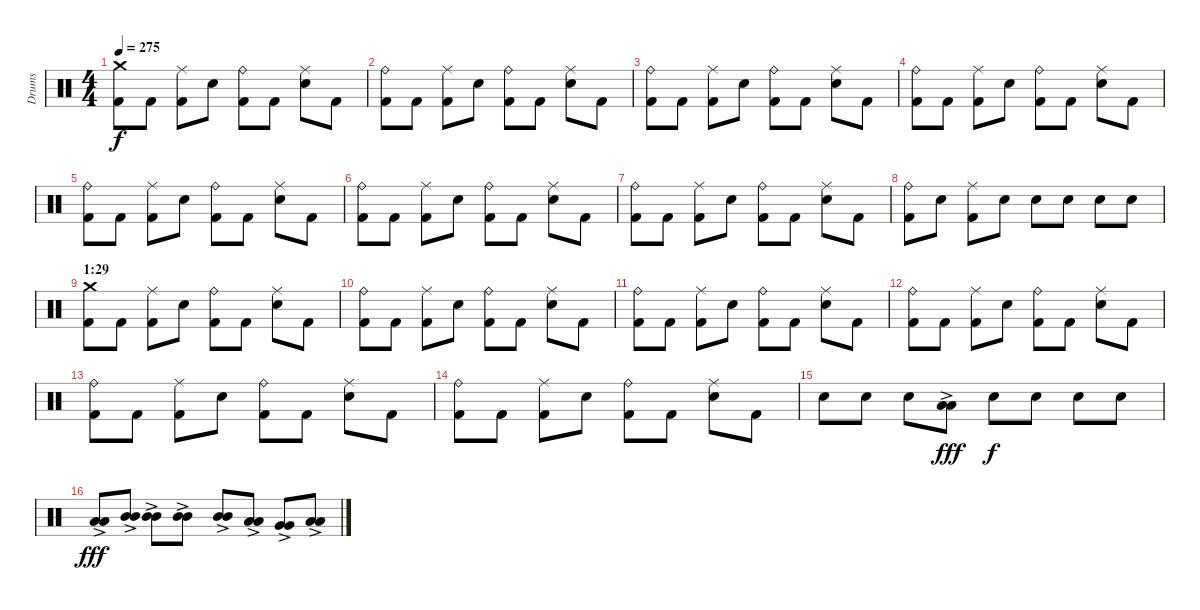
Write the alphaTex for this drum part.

\track ("Drums" "Drums") {instrument percussion}
\staff {score}
\articulation defaults
\ts (4 4)
\tempo 275
\clef neutral
\ks c
("Crash medium (hit)" "Kick (hit) 2").8{dy f} "Kick (hit) 2".8 ("Ride (middle)" "Kick (hit) 2").8 "Electric Snare (hit)".8 ("Ride (bell)" "Kick (hit) 2").8 "Kick (hit) 2".8 ("Ride (middle)" "Electric Snare (hit)").8 "Kick (hit) 2".8 |
("Ride (bell)" "Kick (hit) 2").8 "Kick (hit) 2".8 ("Ride (middle)" "Kick (hit) 2").8 "Electric Snare (hit)".8 ("Ride (bell)" "Kick (hit) 2").8 "Kick (hit) 2".8 ("Ride (middle)" "Electric Snare (hit)").8 "Kick (hit) 2".8 |
("Ride (bell)" "Kick (hit) 2").8 "Kick (hit) 2".8 ("Ride (middle)" "Kick (hit) 2").8 "Electric Snare (hit)".8 ("Ride (bell)" "Kick (hit) 2").8 "Kick (hit) 2".8 ("Ride (middle)" "Electric Snare (hit)").8 "Kick (hit) 2".8 |
("Ride (bell)" "Kick (hit) 2").8 "Kick (hit) 2".8 ("Ride (middle)" "Kick (hit) 2").8 "Electric Snare (hit)".8 ("Ride (bell)" "Kick (hit) 2").8 "Kick (hit) 2".8 ("Ride (middle)" "Electric Snare (hit)").8 "Kick (hit) 2".8 |
("Ride (bell)" "Kick (hit) 2").8 "Kick (hit) 2".8 ("Ride (middle)" "Kick (hit) 2").8 "Electric Snare (hit)".8 ("Ride (bell)" "Kick (hit) 2").8 "Kick (hit) 2".8 ("Ride (middle)" "Electric Snare (hit)").8 "Kick (hit) 2".8 |
("Ride (bell)" "Kick (hit) 2").8 "Kick (hit) 2".8 ("Ride (middle)" "Kick (hit) 2").8 "Electric Snare (hit)".8 ("Ride (bell)" "Kick (hit) 2").8 "Kick (hit) 2".8 ("Ride (middle)" "Electric Snare (hit)").8 "Kick (hit) 2".8 |
("Ride (bell)" "Kick (hit) 2").8 "Kick (hit) 2".8 ("Ride (middle)" "Kick (hit) 2").8 "Electric Snare (hit)".8 ("Ride (bell)" "Kick (hit) 2").8 "Kick (hit) 2".8 ("Ride (middle)" "Electric Snare (hit)").8 "Kick (hit) 2".8 |
("Ride (bell)" "Kick (hit) 2").8 "Electric Snare (hit)".8 ("Ride (middle)" "Kick (hit) 2").8 "Electric Snare (hit)".8 "Electric Snare (hit)".8 "Electric Snare (hit)".8 "Electric Snare (hit)".8 "Electric Snare (hit)".8 |
\section ("" "1:29")
("Crash medium (hit)" "Kick (hit) 2").8 "Kick (hit) 2".8 ("Ride (middle)" "Kick (hit) 2").8 "Electric Snare (hit)".8 ("Ride (bell)" "Kick (hit) 2").8 "Kick (hit) 2".8 ("Ride (middle)" "Electric Snare (hit)").8 "Kick (hit) 2".8 |
("Ride (bell)" "Kick (hit) 2").8 "Kick (hit) 2".8 ("Ride (middle)" "Kick (hit) 2").8 "Electric Snare (hit)".8 ("Ride (bell)" "Kick (hit) 2").8 "Kick (hit) 2".8 ("Ride (middle)" "Electric Snare (hit)").8 "Kick (hit) 2".8 |
("Ride (bell)" "Kick (hit) 2").8 "Kick (hit) 2".8 ("Ride (middle)" "Kick (hit) 2").8 "Electric Snare (hit)".8 ("Ride (bell)" "Kick (hit) 2").8 "Kick (hit) 2".8 ("Ride (middle)" "Electric Snare (hit)").8 "Kick (hit) 2".8 |
("Ride (bell)" "Kick (hit) 2").8 "Kick (hit) 2".8 ("Ride (middle)" "Kick (hit) 2").8 "Electric Snare (hit)".8 ("Ride (bell)" "Kick (hit) 2").8 "Kick (hit) 2".8 ("Ride (middle)" "Electric Snare (hit)").8 "Kick (hit) 2".8 |
("Ride (bell)" "Kick (hit) 2").8 "Kick (hit) 2".8 ("Ride (middle)" "Kick (hit) 2").8 "Electric Snare (hit)".8 ("Ride (bell)" "Kick (hit) 2").8 "Kick (hit) 2".8 ("Ride (middle)" "Electric Snare (hit)").8 "Kick (hit) 2".8 |
("Ride (bell)" "Kick (hit) 2").8 "Kick (hit) 2".8 ("Ride (middle)" "Kick (hit) 2").8 "Electric Snare (hit)".8 ("Ride (bell)" "Kick (hit) 2").8 "Kick (hit) 2".8 ("Ride (middle)" "Electric Snare (hit)").8 "Kick (hit) 2".8 |
"Electric Snare (hit)".8 "Electric Snare (hit)".8 "Electric Snare (hit)".8 ("Low Tom (hit)"{ac} "Low Tom (hit)"{ac}).8{dy fff} "Electric Snare (hit)".8{dy f} "Electric Snare (hit)".8 "Electric Snare (hit)".8 "Electric Snare (hit)".8 |
("Low Tom (hit)"{ac} "Low Tom (hit)"{ac}).8{dy fff} ("Mid Tom (hit)"{ac} "Mid Tom (hit)"{ac}).8 ("Mid Tom (hit)"{ac} "Mid Tom (hit)"{ac}).8 ("Mid Tom (hit)"{ac} "Mid Tom (hit)"{ac}).8 ("Mid Tom (hit)"{ac} "Mid Tom (hit)"{ac}).8 ("Low Tom (hit)"{ac} "Low Tom (hit)"{ac}).8 ("Very Low Tom (hit)"{ac} "Very Low Tom (hit)"{ac}).8 ("Low Floor Tom (hit)"{ac} "Low Floor Tom (hit)"{ac}).8
